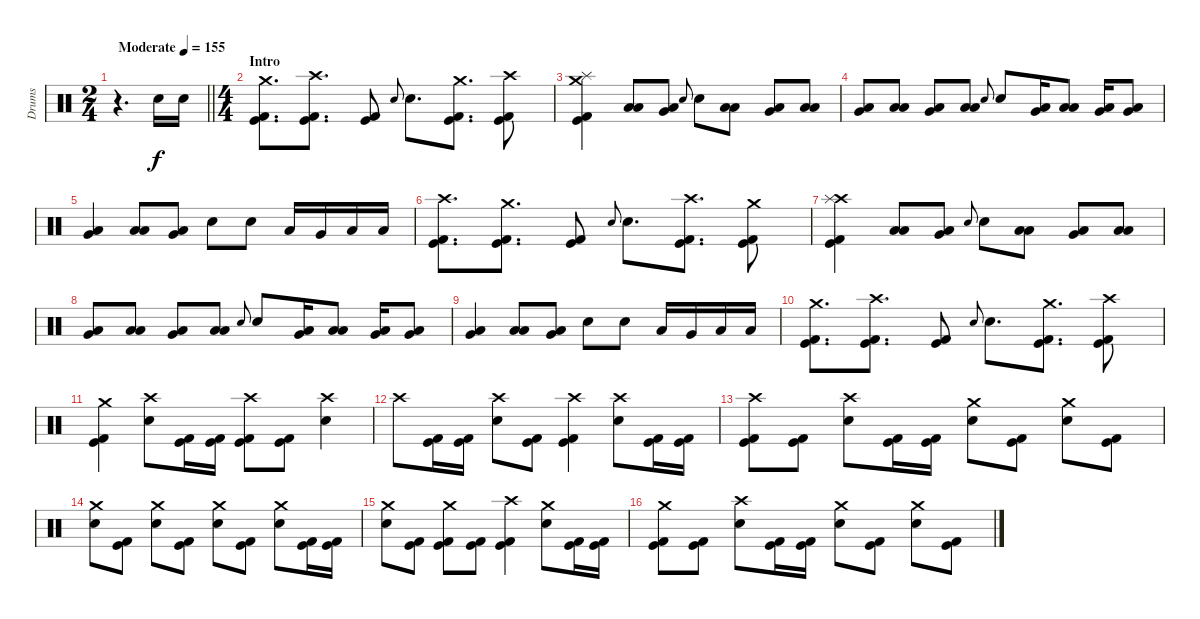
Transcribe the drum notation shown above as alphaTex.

\track ("Drums" "Drums") {instrument percussion}
\staff {score}
\articulation defaults
\ts (2 4)
\tempo (155 "Moderate")
\clef neutral
\barLineRight lightlight
\ks c
r.4{d dy f} "Electric Snare (hit)".16 "Electric Snare (hit)".16 |
\ts (4 4)
\section ("" "Intro")
("Crash medium (hit)" "Kick (hit)" "Kick (hit) 2").8{d} ("Crash high (hit)" "Kick (hit)" "Kick (hit) 2").8{d} ("Kick (hit)" "Kick (hit) 2").8 "Electric Snare (hit)".8{gr onbeat} "Electric Snare (hit)".8{d} ("Crash medium (hit)" "Kick (hit)" "Kick (hit) 2").8{d} ("Crash high (hit)" "Kick (hit)" "Kick (hit) 2").8 |
("Crash medium (hit)" "Splash (hit)" "Kick (hit)" "Kick (hit) 2").4 ("Low Tom (hit)" "Low Floor Tom (hit)").8 ("Low Tom (hit)" "Very Low Tom (hit)").8 "Electric Snare (hit)".8{gr onbeat} "Electric Snare (hit)".8 ("Low Tom (hit)" "Low Floor Tom (hit)").8 ("Low Tom (hit)" "Very Low Tom (hit)").8 ("Low Tom (hit)" "Low Floor Tom (hit)").8 |
("Low Tom (hit)" "Very Low Tom (hit)").8 ("Low Tom (hit)" "Low Floor Tom (hit)").8 ("Low Tom (hit)" "Very Low Tom (hit)").8 ("Low Tom (hit)" "Low Floor Tom (hit)").8 "Electric Snare (hit)".8{gr onbeat} "Electric Snare (hit)".8 ("Low Tom (hit)" "Very Low Tom (hit)").16 ("Low Tom (hit)" "Low Floor Tom (hit)").8 ("Low Tom (hit)" "Very Low Tom (hit)").16 ("Low Tom (hit)" "Very Low Tom (hit)").8 |
("Low Tom (hit)" "Very Low Tom (hit)").4 ("Low Tom (hit)" "Low Floor Tom (hit)").8 ("Low Tom (hit)" "Very Low Tom (hit)").8 "Electric Snare (hit)".8 "Electric Snare (hit)".8 "Low Tom (hit)".16 "Very Low Tom (hit)".16 "Low Tom (hit)".16 "Low Floor Tom (hit)".16 |
("Crash high (hit)" "Kick (hit)" "Kick (hit) 2").8{d} ("Crash medium (hit)" "Kick (hit)" "Kick (hit) 2").8{d} ("Kick (hit)" "Kick (hit) 2").8 "Electric Snare (hit)".8{gr onbeat} "Electric Snare (hit)".8{d} ("Crash high (hit)" "Kick (hit)" "Kick (hit) 2").8{d} ("Crash medium (hit)" "Kick (hit)" "Kick (hit) 2").8 |
("Crash high (hit)" "Splash (hit)" "Kick (hit)" "Kick (hit) 2").4 ("Low Tom (hit)" "Low Floor Tom (hit)").8 ("Low Tom (hit)" "Very Low Tom (hit)").8 "Electric Snare (hit)".8{gr onbeat} "Electric Snare (hit)".8 ("Low Tom (hit)" "Low Floor Tom (hit)").8 ("Low Tom (hit)" "Very Low Tom (hit)").8 ("Low Tom (hit)" "Low Floor Tom (hit)").8 |
("Low Tom (hit)" "Very Low Tom (hit)").8 ("Low Tom (hit)" "Low Floor Tom (hit)").8 ("Low Tom (hit)" "Very Low Tom (hit)").8 ("Low Tom (hit)" "Low Floor Tom (hit)").8 "Electric Snare (hit)".8{gr onbeat} "Electric Snare (hit)".8 ("Low Tom (hit)" "Very Low Tom (hit)").16 ("Low Tom (hit)" "Low Floor Tom (hit)").8 ("Low Tom (hit)" "Very Low Tom (hit)").16 ("Low Tom (hit)" "Very Low Tom (hit)").8 |
("Low Tom (hit)" "Very Low Tom (hit)").4 ("Low Tom (hit)" "Low Floor Tom (hit)").8 ("Low Tom (hit)" "Very Low Tom (hit)").8 "Electric Snare (hit)".8 "Electric Snare (hit)".8 "Low Tom (hit)".16 "Very Low Tom (hit)".16 "Low Tom (hit)".16 "Low Floor Tom (hit)".16 |
("Crash medium (hit)" "Kick (hit)" "Kick (hit) 2").8{d} ("Crash high (hit)" "Kick (hit)" "Kick (hit) 2").8{d} ("Kick (hit)" "Kick (hit) 2").8 "Electric Snare (hit)".8{gr onbeat} "Electric Snare (hit)".8{d} ("Crash medium (hit)" "Kick (hit)" "Kick (hit) 2").8{d} ("Crash high (hit)" "Kick (hit)" "Kick (hit) 2").8 |
("Crash medium (hit)" "Kick (hit)" "Kick (hit) 2").4 ("Crash high (hit)" "Electric Snare (hit)").8 ("Kick (hit)" "Kick (hit) 2").16 ("Kick (hit)" "Kick (hit) 2").16 ("Crash high (hit)" "Kick (hit)" "Kick (hit) 2").8 ("Kick (hit)" "Kick (hit) 2").8 ("Crash high (hit)" "Electric Snare (hit)").4 |
"Crash high (hit)".8 ("Kick (hit)" "Kick (hit) 2").16 ("Kick (hit)" "Kick (hit) 2").16 ("Crash high (hit)" "Electric Snare (hit)").8 ("Kick (hit)" "Kick (hit) 2").8 ("Crash high (hit)" "Kick (hit)" "Kick (hit) 2").4 ("Crash high (hit)" "Electric Snare (hit)").8 ("Kick (hit)" "Kick (hit) 2").16 ("Kick (hit)" "Kick (hit) 2").16 |
("Crash high (hit)" "Kick (hit)" "Kick (hit) 2").8 ("Kick (hit)" "Kick (hit) 2").8 ("Crash high (hit)" "Electric Snare (hit)").8 ("Kick (hit)" "Kick (hit) 2").16 ("Kick (hit)" "Kick (hit) 2").16 ("Crash medium (hit)" "Electric Snare (hit)").8 ("Kick (hit)" "Kick (hit) 2").8 ("Crash medium (hit)" "Electric Snare (hit)").8 ("Kick (hit)" "Kick (hit) 2").8 |
("Crash medium (hit)" "Electric Snare (hit)").8 ("Kick (hit)" "Kick (hit) 2").8 ("Crash medium (hit)" "Electric Snare (hit)").8 ("Kick (hit)" "Kick (hit) 2").8 ("Crash medium (hit)" "Electric Snare (hit)").8 ("Kick (hit)" "Kick (hit) 2").8 ("Crash medium (hit)" "Electric Snare (hit)").8 ("Kick (hit)" "Kick (hit) 2").16 ("Kick (hit)" "Kick (hit) 2").16 |
("Crash medium (hit)" "Electric Snare (hit)").8 ("Kick (hit)" "Kick (hit) 2").8 ("Crash medium (hit)" "Kick (hit)" "Kick (hit) 2").8 ("Kick (hit)" "Kick (hit) 2").8 ("Crash high (hit)" "Kick (hit)" "Kick (hit) 2").4 ("Crash medium (hit)" "Electric Snare (hit)").8 ("Kick (hit)" "Kick (hit) 2").16 ("Kick (hit)" "Kick (hit) 2").16 |
("Crash medium (hit)" "Kick (hit)" "Kick (hit) 2").8 ("Kick (hit)" "Kick (hit) 2").8 ("Crash high (hit)" "Electric Snare (hit)").8 ("Kick (hit)" "Kick (hit) 2").16 ("Kick (hit)" "Kick (hit) 2").16 ("Crash medium (hit)" "Electric Snare (hit)").8 ("Kick (hit)" "Kick (hit) 2").8 ("Crash medium (hit)" "Electric Snare (hit)").8 ("Kick (hit)" "Kick (hit) 2").8
